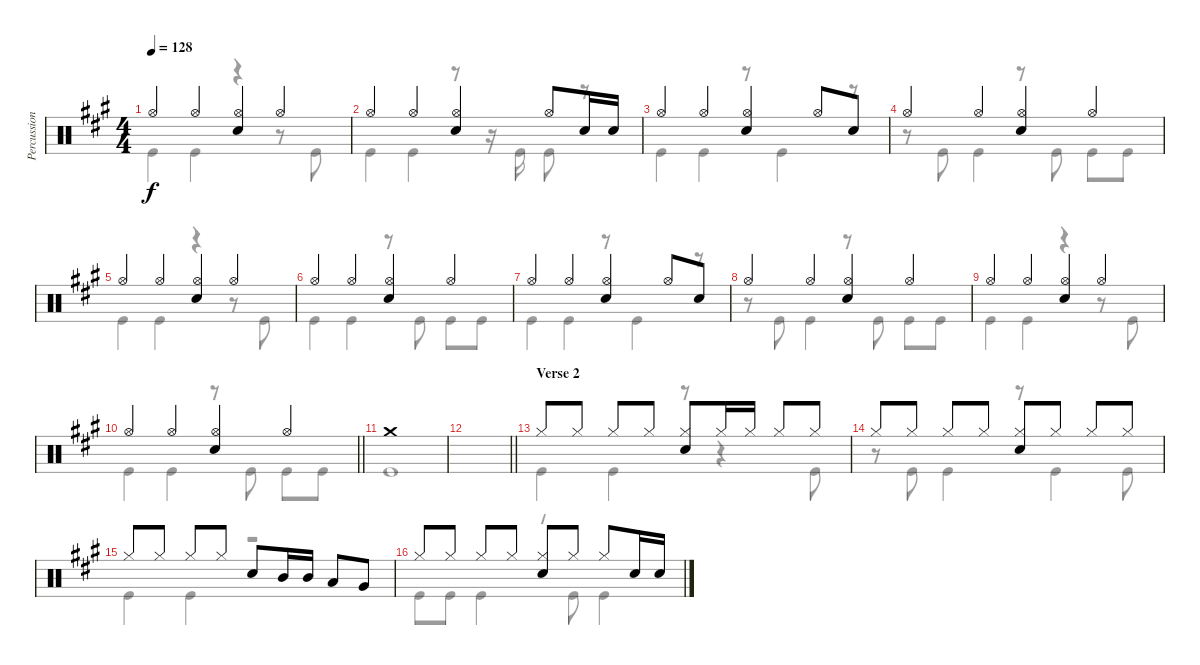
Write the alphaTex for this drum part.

\track ("Percussion" "Percussion") {instrument percussion}
\staff {score}
\articulation defaults
\voice
\ts (4 4)
\tempo 128
\clef neutral
\ks f#minor "Hi-Hat (open)".4{dy f} "Hi-Hat (open)".4
("Hi-Hat (open)" "Electric Snare (hit)").4 "Hi-Hat (open)".4 |
"Hi-Hat (open)".4 "Hi-Hat (open)".4 ("Hi-Hat (open)" "Electric Snare (hit)").4 "Hi-Hat (open)".8 "Electric Snare (hit)".16 "Electric Snare (hit)".16 |
"Hi-Hat (open)".4 "Hi-Hat (open)".4 ("Hi-Hat (open)" "Electric Snare (hit)").4 "Hi-Hat (open)".8 "Electric Snare (hit)".8 |
"Hi-Hat (open)".4 "Hi-Hat (open)".4 ("Hi-Hat (open)" "Electric Snare (hit)").4 "Hi-Hat (open)".4 |
"Hi-Hat (open)".4 "Hi-Hat (open)".4 ("Hi-Hat (open)" "Electric Snare (hit)").4 "Hi-Hat (open)".4 |
"Hi-Hat (open)".4 "Hi-Hat (open)".4 ("Hi-Hat (open)" "Electric Snare (hit)").4 "Hi-Hat (open)".4 |
"Hi-Hat (open)".4 "Hi-Hat (open)".4 ("Hi-Hat (open)" "Electric Snare (hit)").4 "Hi-Hat (open)".8 "Electric Snare (hit)".8 |
"Hi-Hat (open)".4 "Hi-Hat (open)".4 ("Hi-Hat (open)" "Electric Snare (hit)").4 "Hi-Hat (open)".4 |
"Hi-Hat (open)".4 "Hi-Hat (open)".4 ("Hi-Hat (open)" "Electric Snare (hit)").4 "Hi-Hat (open)".4 |
\barLineRight lightlight "Hi-Hat (open)".4 "Hi-Hat (open)".4
("Hi-Hat (open)" "Electric Snare (hit)").4 "Hi-Hat (open)".4 |
\section ("" "")
"Crash medium (hit)".1 |
\barLineRight lightlight
|
\section ("" "Verse 2")
"Hi-Hat (closed)".8 "Hi-Hat (closed)".8 "Hi-Hat (closed)".8 "Hi-Hat (closed)".8 ("Hi-Hat (closed)" "Electric Snare (hit)").8 "Hi-Hat (closed)".16 "Hi-Hat (closed)".16 "Hi-Hat (closed)".8 "Hi-Hat (closed)".8 |
"Hi-Hat (closed)".8 "Hi-Hat (closed)".8 "Hi-Hat (closed)".8 "Hi-Hat (closed)".8 ("Hi-Hat (closed)" "Electric Snare (hit)").8 "Hi-Hat (closed)".8 "Hi-Hat (closed)".8 "Hi-Hat (closed)".8 |
"Hi-Hat (closed)".8 "Hi-Hat (closed)".8 "Hi-Hat (closed)".8 "Hi-Hat (closed)".8 "Electric Snare (hit)".8 "Mid Tom (hit)".16 "Mid Tom (hit)".16 "Low Tom (hit)".8 "Very Low Tom (hit)".8 |
"Hi-Hat (closed)".8 "Hi-Hat (closed)".8 "Hi-Hat (closed)".8 "Hi-Hat (closed)".8 ("Hi-Hat (closed)" "Electric Snare (hit)").8 "Hi-Hat (closed)".8 "Hi-Hat (closed)".8 "Electric Snare (hit)".16 "Electric Snare (hit)".16
\voice
\clef neutral
\ottava regular
\simile none
\ks f#minor "Kick (hit)".4{dy f} "Kick (hit)".4
r.4 r.8 "Kick (hit)".8 |
"Kick (hit)".4 "Kick (hit)".4 r.8 r.16 "Kick (hit)".16 "Kick (hit)".8 r.8 |
"Kick (hit)".4 "Kick (hit)".4 r.8 "Kick (hit)".4 r.8 |
r.8 "Kick (hit)".8 "Kick (hit)".4 r.8 "Kick (hit)".8 "Kick (hit)".8 "Kick (hit)".8 |
"Kick (hit)".4 "Kick (hit)".4 r.4 r.8 "Kick (hit)".8 |
"Kick (hit)".4 "Kick (hit)".4 r.8 "Kick (hit)".8 "Kick (hit)".8 "Kick (hit)".8 |
"Kick (hit)".4 "Kick (hit)".4 r.8 "Kick (hit)".4 r.8 |
r.8 "Kick (hit)".8 "Kick (hit)".4 r.8 "Kick (hit)".8 "Kick (hit)".8 "Kick (hit)".8 |
"Kick (hit)".4 "Kick (hit)".4 r.4 r.8 "Kick (hit)".8 |
\barLineRight lightlight "Kick (hit)".4 "Kick (hit)".4
r.8 "Kick (hit)".8 "Kick (hit)".8 "Kick (hit)".8 |
"Kick (hit)".1 |
\barLineRight lightlight
|
"Kick (hit)".4 "Kick (hit)".4 r.8 r.4 "Kick (hit)".8 |
r.8 "Kick (hit)".8 "Kick (hit)".4 r.8 "Kick (hit)".4 "Kick (hit)".8 |
"Kick (hit)".4 "Kick (hit)".4 r.2 |
"Kick (hit)".8 "Kick (hit)".8 "Kick (hit)".4 r.8 "Kick (hit)".8 "Kick (hit)".4
